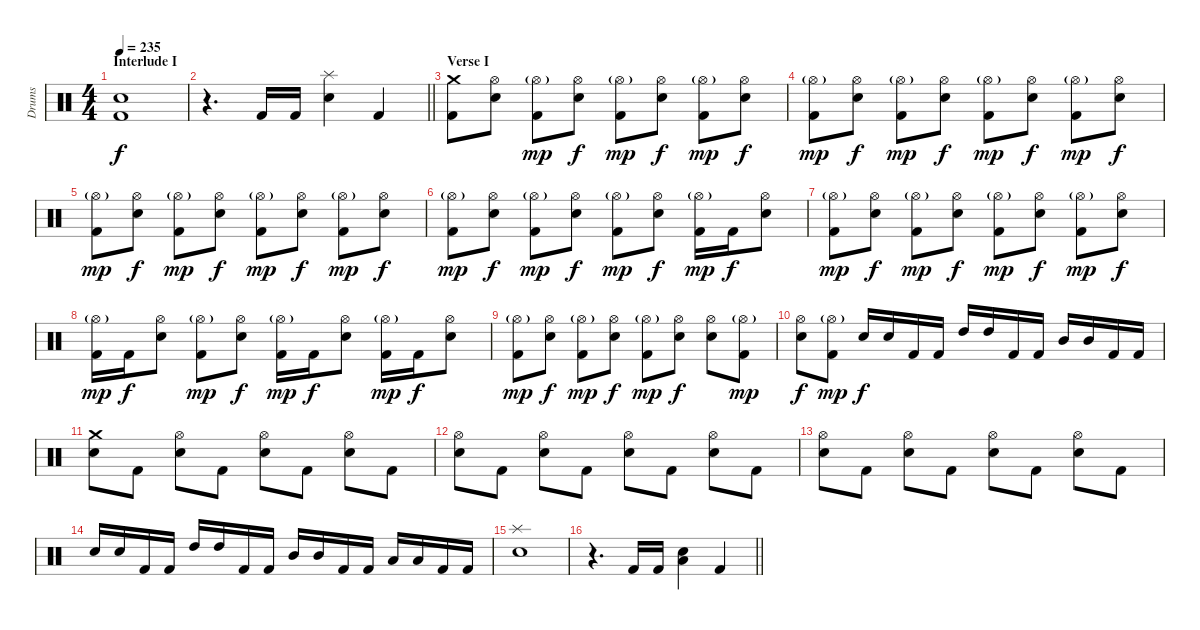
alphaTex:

\track ("Drums" "Drums") {instrument percussion}
\staff {score}
\articulation defaults
\ts (4 4)
\section ("" "Interlude I")
\tempo 235
\clef neutral
\ks c
("Electric Snare (hit)" "Kick (hit) 2").1{dy f} |
\barLineRight lightlight
r.4{d} "Kick (hit) 2".16 "Kick (hit) 2".16 ("Splash (hit)" "Electric Snare (hit)").4 "Kick (hit) 2".4 |
\section ("" "Verse I")
("Crash medium (hit)" "Kick (hit) 2").8 ("Hi-Hat (open)" "Electric Snare (hit)").8 ("Hi-Hat (open)"{g} "Kick (hit) 2").8{dy mp} ("Hi-Hat (open)" "Electric Snare (hit)").8{dy f} ("Hi-Hat (open)"{g} "Kick (hit) 2").8{dy mp} ("Hi-Hat (open)" "Electric Snare (hit)").8{dy f} ("Hi-Hat (open)"{g} "Kick (hit) 2").8{dy mp} ("Hi-Hat (open)" "Electric Snare (hit)").8{dy f} |
("Hi-Hat (open)"{g} "Kick (hit) 2").8{dy mp} ("Hi-Hat (open)" "Electric Snare (hit)").8{dy f} ("Hi-Hat (open)"{g} "Kick (hit) 2").8{dy mp} ("Hi-Hat (open)" "Electric Snare (hit)").8{dy f} ("Hi-Hat (open)"{g} "Kick (hit) 2").8{dy mp} ("Hi-Hat (open)" "Electric Snare (hit)").8{dy f} ("Hi-Hat (open)"{g} "Kick (hit) 2").8{dy mp} ("Hi-Hat (open)" "Electric Snare (hit)").8{dy f} |
("Hi-Hat (open)"{g} "Kick (hit) 2").8{dy mp} ("Hi-Hat (open)" "Electric Snare (hit)").8{dy f} ("Hi-Hat (open)"{g} "Kick (hit) 2").8{dy mp} ("Hi-Hat (open)" "Electric Snare (hit)").8{dy f} ("Hi-Hat (open)"{g} "Kick (hit) 2").8{dy mp} ("Hi-Hat (open)" "Electric Snare (hit)").8{dy f} ("Hi-Hat (open)"{g} "Kick (hit) 2").8{dy mp} ("Hi-Hat (open)" "Electric Snare (hit)").8{dy f} |
("Hi-Hat (open)"{g} "Kick (hit) 2").8{dy mp} ("Hi-Hat (open)" "Electric Snare (hit)").8{dy f} ("Hi-Hat (open)"{g} "Kick (hit) 2").8{dy mp} ("Hi-Hat (open)" "Electric Snare (hit)").8{dy f} ("Hi-Hat (open)"{g} "Kick (hit) 2").8{dy mp} ("Hi-Hat (open)" "Electric Snare (hit)").8{dy f} ("Hi-Hat (open)"{g} "Kick (hit) 2").16{dy mp} "Kick (hit) 2".16{dy f} ("Hi-Hat (open)" "Electric Snare (hit)").8 |
("Hi-Hat (open)"{g} "Kick (hit) 2").8{dy mp} ("Hi-Hat (open)" "Electric Snare (hit)").8{dy f} ("Hi-Hat (open)"{g} "Kick (hit) 2").8{dy mp} ("Hi-Hat (open)" "Electric Snare (hit)").8{dy f} ("Hi-Hat (open)"{g} "Kick (hit) 2").8{dy mp} ("Hi-Hat (open)" "Electric Snare (hit)").8{dy f} ("Hi-Hat (open)"{g} "Kick (hit) 2").8{dy mp} ("Hi-Hat (open)" "Electric Snare (hit)").8{dy f} |
("Hi-Hat (open)"{g} "Kick (hit) 2").16{dy mp} "Kick (hit) 2".16{dy f} ("Hi-Hat (open)" "Electric Snare (hit)").8 ("Hi-Hat (open)"{g} "Kick (hit) 2").8{dy mp} ("Hi-Hat (open)" "Electric Snare (hit)").8{dy f} ("Hi-Hat (open)"{g} "Kick (hit) 2").16{dy mp} "Kick (hit) 2".16{dy f} ("Hi-Hat (open)" "Electric Snare (hit)").8 ("Hi-Hat (open)"{g} "Kick (hit) 2").16{dy mp} "Kick (hit) 2".16{dy f} ("Hi-Hat (open)" "Electric Snare (hit)").8 |
("Hi-Hat (open)"{g} "Kick (hit) 2").8{dy mp} ("Hi-Hat (open)" "Electric Snare (hit)").8{dy f} ("Hi-Hat (open)"{g} "Kick (hit) 2").8{dy mp} ("Hi-Hat (open)" "Electric Snare (hit)").8{dy f} ("Hi-Hat (open)"{g} "Kick (hit) 2").8{dy mp} ("Hi-Hat (open)" "Electric Snare (hit)").8{dy f} ("Hi-Hat (open)" "Electric Snare (hit)").8 ("Hi-Hat (open)"{g} "Kick (hit) 2").8{dy mp} |
("Hi-Hat (open)" "Electric Snare (hit)").8{dy f} ("Hi-Hat (open)"{g} "Kick (hit) 2").8{dy mp} "Electric Snare (hit)".16{dy f} "Electric Snare (hit)".16 "Kick (hit) 2".16 "Kick (hit) 2".16 "High Tom (hit)".16 "High Tom (hit)".16 "Kick (hit) 2".16 "Kick (hit) 2".16 "Mid Tom (hit)".16 "Mid Tom (hit)".16 "Kick (hit) 2".16 "Kick (hit) 2".16 |
("Crash medium (hit)" "Electric Snare (hit)").8 "Kick (hit) 2".8 ("Hi-Hat (open)" "Electric Snare (hit)").8 "Kick (hit) 2".8 ("Hi-Hat (open)" "Electric Snare (hit)").8 "Kick (hit) 2".8 ("Hi-Hat (open)" "Electric Snare (hit)").8 "Kick (hit) 2".8 |
("Hi-Hat (open)" "Electric Snare (hit)").8 "Kick (hit) 2".8 ("Hi-Hat (open)" "Electric Snare (hit)").8 "Kick (hit) 2".8 ("Hi-Hat (open)" "Electric Snare (hit)").8 "Kick (hit) 2".8 ("Hi-Hat (open)" "Electric Snare (hit)").8 "Kick (hit) 2".8 |
("Hi-Hat (open)" "Electric Snare (hit)").8 "Kick (hit) 2".8 ("Hi-Hat (open)" "Electric Snare (hit)").8 "Kick (hit) 2".8 ("Hi-Hat (open)" "Electric Snare (hit)").8 "Kick (hit) 2".8 ("Hi-Hat (open)" "Electric Snare (hit)").8 "Kick (hit) 2".8 |
"Electric Snare (hit)".16 "Electric Snare (hit)".16 "Kick (hit) 2".16 "Kick (hit) 2".16 "High Tom (hit)".16 "High Tom (hit)".16 "Kick (hit) 2".16 "Kick (hit) 2".16 "Mid Tom (hit)".16 "Mid Tom (hit)".16 "Kick (hit) 2".16 "Kick (hit) 2".16 "Low Tom (hit)".16 "Low Tom (hit)".16 "Kick (hit) 2".16 "Kick (hit) 2".16 |
("Splash (hit)" "Electric Snare (hit)").1 |
\barLineRight lightlight
r.4{d} "Kick (hit) 2".16 "Kick (hit) 2".16 ("Low Floor Tom (hit)" "Electric Snare (hit)").4 "Kick (hit) 2".4
